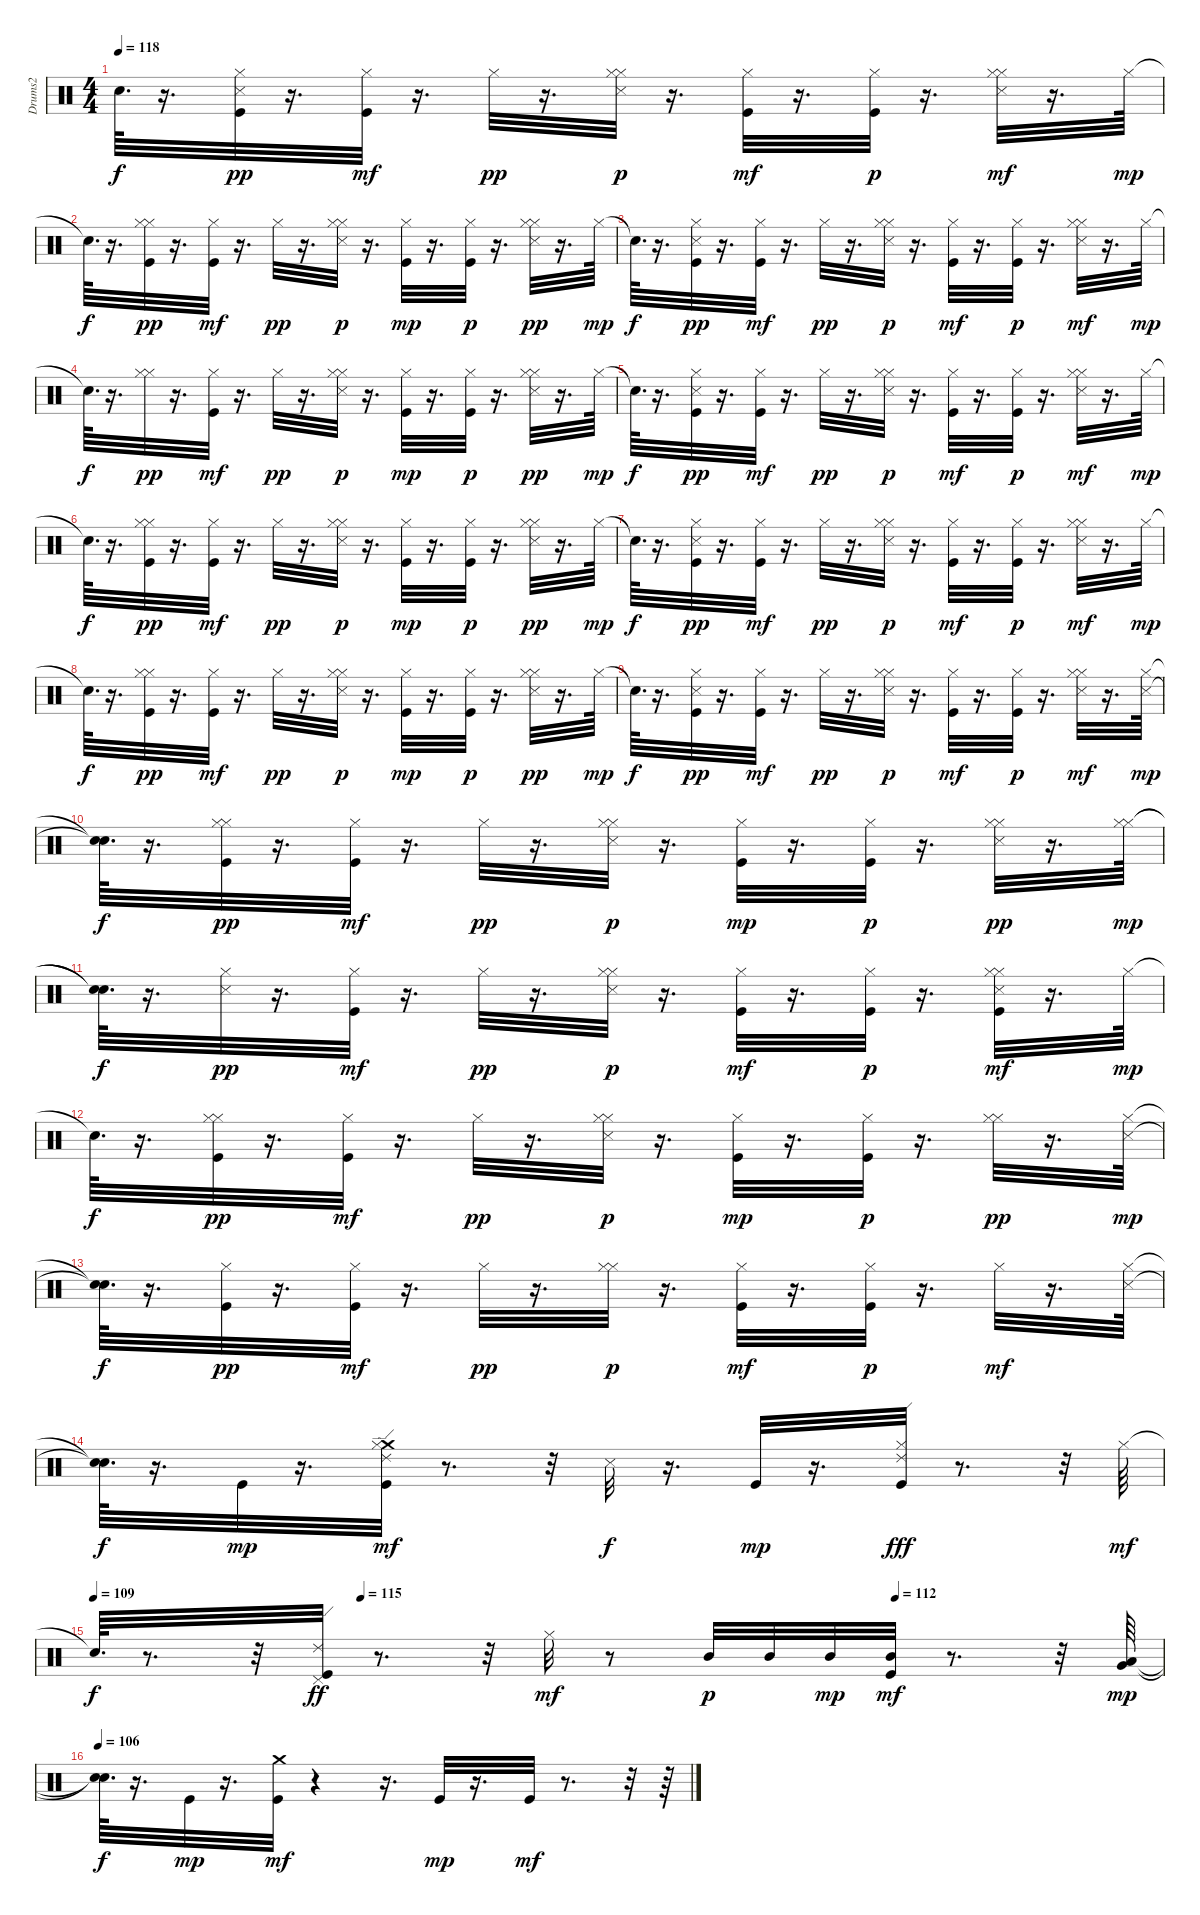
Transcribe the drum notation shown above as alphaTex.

\track ("Drums2" "Drums2") {instrument percussion}
\staff {score}
\articulation defaults
\ts (4 4)
\tempo 118
\clef neutral
\ks c "Snare (hit)"{t}.64{d dy f}
r.16{d} ("Kick (hit)" "Snare (side stick) 3" "Hi-Hat (closed)").32{dy pp} r.16{d} ("Kick (hit)" "Hi-Hat (closed)").32{dy mf} r.16{d} "Hi-Hat (closed)".32{dy pp} r.16{d} ("Hi-Hat (closed)" "Snare (side stick) 3" "Hi-Hat (closed)").32{dy p} r.16{d} ("Kick (hit)" "Hi-Hat (closed)").32{dy mf} r.16{d} ("Kick (hit)" "Hi-Hat (closed)").32{dy p} r.16{d} ("Hi-Hat (closed)" "Snare (side stick) 3" "Hi-Hat (closed)").32{dy mf} r.16{d} "Hi-Hat (closed)".64{dy mp} |
"Snare (hit)"{t}.64{d dy f} r.16{d} ("Hi-Hat (closed)" "Kick (hit)" "Hi-Hat (closed)").32{dy pp} r.16{d} ("Kick (hit)" "Hi-Hat (closed)").32{dy mf} r.16{d} "Hi-Hat (closed)".32{dy pp} r.16{d} ("Hi-Hat (closed)" "Snare (side stick) 3" "Hi-Hat (closed)").32{dy p} r.16{d} ("Kick (hit)" "Hi-Hat (closed)").32{dy mp} r.16{d} ("Kick (hit)" "Hi-Hat (closed)").32{dy p} r.16{d} ("Hi-Hat (closed)" "Snare (side stick) 3" "Hi-Hat (closed)").32{dy pp} r.16{d} "Hi-Hat (closed)".64{dy mp} |
"Snare (hit)"{t}.64{d dy f} r.16{d} ("Kick (hit)" "Snare (side stick) 3" "Hi-Hat (closed)").32{dy pp} r.16{d} ("Kick (hit)" "Hi-Hat (closed)").32{dy mf} r.16{d} "Hi-Hat (closed)".32{dy pp} r.16{d} ("Hi-Hat (closed)" "Snare (side stick) 3" "Hi-Hat (closed)").32{dy p} r.16{d} ("Kick (hit)" "Hi-Hat (closed)").32{dy mf} r.16{d} ("Kick (hit)" "Hi-Hat (closed)").32{dy p} r.16{d} ("Hi-Hat (closed)" "Snare (side stick) 3" "Hi-Hat (closed)").32{dy mf} r.16{d} "Hi-Hat (closed)".64{dy mp} |
"Snare (hit)"{t}.64{d dy f} r.16{d} ("Hi-Hat (closed)" "Hi-Hat (closed)").32{dy pp} r.16{d} ("Kick (hit)" "Hi-Hat (closed)").32{dy mf} r.16{d} "Hi-Hat (closed)".32{dy pp} r.16{d} ("Hi-Hat (closed)" "Snare (side stick) 3" "Hi-Hat (closed)").32{dy p} r.16{d} ("Kick (hit)" "Hi-Hat (closed)").32{dy mp} r.16{d} ("Kick (hit)" "Hi-Hat (closed)").32{dy p} r.16{d} ("Hi-Hat (closed)" "Snare (side stick) 3" "Hi-Hat (closed)").32{dy pp} r.16{d} "Hi-Hat (closed)".64{dy mp} |
"Snare (hit)"{t}.64{d dy f} r.16{d} ("Kick (hit)" "Snare (side stick) 3" "Hi-Hat (closed)").32{dy pp} r.16{d} ("Kick (hit)" "Hi-Hat (closed)").32{dy mf} r.16{d} "Hi-Hat (closed)".32{dy pp} r.16{d} ("Hi-Hat (closed)" "Snare (side stick) 3" "Hi-Hat (closed)").32{dy p} r.16{d} ("Kick (hit)" "Hi-Hat (closed)").32{dy mf} r.16{d} ("Kick (hit)" "Hi-Hat (closed)").32{dy p} r.16{d} ("Hi-Hat (closed)" "Snare (side stick) 3" "Hi-Hat (closed)").32{dy mf} r.16{d} "Hi-Hat (closed)".64{dy mp} |
"Snare (hit)"{t}.64{d dy f} r.16{d} ("Hi-Hat (closed)" "Kick (hit)" "Hi-Hat (closed)").32{dy pp} r.16{d} ("Kick (hit)" "Hi-Hat (closed)").32{dy mf} r.16{d} "Hi-Hat (closed)".32{dy pp} r.16{d} ("Hi-Hat (closed)" "Snare (side stick) 3" "Hi-Hat (closed)").32{dy p} r.16{d} ("Kick (hit)" "Hi-Hat (closed)").32{dy mp} r.16{d} ("Kick (hit)" "Hi-Hat (closed)").32{dy p} r.16{d} ("Hi-Hat (closed)" "Snare (side stick) 3" "Hi-Hat (closed)").32{dy pp} r.16{d} "Hi-Hat (closed)".64{dy mp} |
"Snare (hit)"{t}.64{d dy f} r.16{d} ("Kick (hit)" "Snare (side stick) 3" "Hi-Hat (closed)").32{dy pp} r.16{d} ("Kick (hit)" "Hi-Hat (closed)").32{dy mf} r.16{d} "Hi-Hat (closed)".32{dy pp} r.16{d} ("Hi-Hat (closed)" "Snare (side stick) 3" "Hi-Hat (closed)").32{dy p} r.16{d} ("Kick (hit)" "Hi-Hat (closed)").32{dy mf} r.16{d} ("Kick (hit)" "Hi-Hat (closed)").32{dy p} r.16{d} ("Hi-Hat (closed)" "Snare (side stick) 3" "Hi-Hat (closed)").32{dy mf} r.16{d} "Hi-Hat (closed)".64{dy mp} |
"Snare (hit)"{t}.64{d dy f} r.16{d} ("Hi-Hat (closed)" "Kick (hit)" "Hi-Hat (closed)").32{dy pp} r.16{d} ("Kick (hit)" "Hi-Hat (closed)").32{dy mf} r.16{d} "Hi-Hat (closed)".32{dy pp} r.16{d} ("Hi-Hat (closed)" "Snare (side stick) 3" "Hi-Hat (closed)").32{dy p} r.16{d} ("Kick (hit)" "Hi-Hat (closed)").32{dy mp} r.16{d} ("Kick (hit)" "Hi-Hat (closed)").32{dy p} r.16{d} ("Hi-Hat (closed)" "Snare (side stick) 3" "Hi-Hat (closed)").32{dy pp} r.16{d} "Hi-Hat (closed)".64{dy mp} |
"Snare (hit)"{t}.64{d dy f} r.16{d} ("Kick (hit)" "Snare (side stick) 3" "Hi-Hat (closed)").32{dy pp} r.16{d} ("Kick (hit)" "Hi-Hat (closed)").32{dy mf} r.16{d} "Hi-Hat (closed)".32{dy pp} r.16{d} ("Hi-Hat (closed)" "Snare (side stick) 3" "Hi-Hat (closed)").32{dy p} r.16{d} ("Kick (hit)" "Hi-Hat (closed)").32{dy mf} r.16{d} ("Kick (hit)" "Hi-Hat (closed)").32{dy p} r.16{d} ("Hi-Hat (closed)" "Snare (side stick) 3" "Hi-Hat (closed)").32{dy mf} r.16{d} ("Snare (side stick) 3" "Hi-Hat (closed)").64{dy mp} |
("Snare (hit)"{t} "Snare (hit)"{t}).64{d dy f} r.16{d} ("Hi-Hat (closed)" "Kick (hit)" "Hi-Hat (closed)").32{dy pp} r.16{d} ("Kick (hit)" "Hi-Hat (closed)").32{dy mf} r.16{d} "Hi-Hat (closed)".32{dy pp} r.16{d} ("Hi-Hat (closed)" "Snare (side stick) 3" "Hi-Hat (closed)").32{dy p} r.16{d} ("Kick (hit)" "Hi-Hat (closed)").32{dy mp} r.16{d} ("Kick (hit)" "Hi-Hat (closed)").32{dy p} r.16{d} ("Hi-Hat (closed)" "Snare (side stick) 3" "Hi-Hat (closed)").32{dy pp} r.16{d} ("Hi-Hat (closed)" "Hi-Hat (closed)").64{dy mp} |
("Snare (hit)"{t} "Snare (hit)"{t}).64{d dy f} r.16{d} ("Snare (side stick) 3" "Hi-Hat (closed)").32{dy pp} r.16{d} ("Kick (hit)" "Hi-Hat (closed)").32{dy mf} r.16{d} "Hi-Hat (closed)".32{dy pp} r.16{d} ("Hi-Hat (closed)" "Snare (side stick) 3" "Hi-Hat (closed)").32{dy p} r.16{d} ("Kick (hit)" "Hi-Hat (closed)").32{dy mf} r.16{d} ("Kick (hit)" "Hi-Hat (closed)").32{dy p} r.16{d} ("Hi-Hat (closed)" "Kick (hit)" "Snare (side stick) 3" "Hi-Hat (closed)").32{dy mf} r.16{d} "Hi-Hat (closed)".64{dy mp} |
"Snare (hit)"{t}.64{d dy f} r.16{d} ("Hi-Hat (closed)" "Kick (hit)" "Hi-Hat (closed)").32{dy pp} r.16{d} ("Kick (hit)" "Hi-Hat (closed)").32{dy mf} r.16{d} "Hi-Hat (closed)".32{dy pp} r.16{d} ("Hi-Hat (closed)" "Snare (side stick) 3" "Hi-Hat (closed)").32{dy p} r.16{d} ("Kick (hit)" "Hi-Hat (closed)").32{dy mp} r.16{d} ("Kick (hit)" "Hi-Hat (closed)").32{dy p} r.16{d} ("Hi-Hat (closed)" "Hi-Hat (closed)").32{dy pp} r.16{d} ("Snare (side stick) 3" "Hi-Hat (closed)").64{dy mp} |
("Snare (hit)"{t} "Snare (hit)"{t}).64{d dy f} r.16{d} ("Kick (hit)" "Hi-Hat (closed)").32{dy pp} r.16{d} ("Kick (hit)" "Hi-Hat (closed)").32{dy mf} r.16{d} "Hi-Hat (closed)".32{dy pp} r.16{d} ("Hi-Hat (closed)" "Hi-Hat (closed)").32{dy p} r.16{d} ("Kick (hit)" "Hi-Hat (closed)").32{dy mf} r.16{d} ("Kick (hit)" "Hi-Hat (closed)").32{dy p} r.16{d} "Hi-Hat (closed)".32{dy mf} r.16{d} ("Hi-Hat (closed)" "Snare (side stick) 3").64 |
("Snare (hit)"{t} "Snare (hit)"{t}).64{d dy f} r.16{d} "Kick (hit)".32{dy mp} r.16{d} ("Ride (edge) 2" "Crash medium (hit)" "Hi-Hat (closed)" "Kick (hit)").32{dy mf} r.8{d} r.32 "Snare (side stick) 3".32{dy f} r.16{d} "Kick (hit)".32{dy mp} r.16{d} ("Kick (hit)" "Hi-Hat (closed)" "Ride (edge) 2").32{dy fff} r.8{d} r.32 "Hi-Hat (closed)".64{dy mf} |
\tempo 109
\tempo (115 0.25)
\tempo (112 0.75)
"Snare (hit)"{t}.64{d dy f} r.8{d} r.32 ("Kick (hit)" "Pedal Hi-Hat (hit)" "Ride (edge) 2").32{dy ff} r.8{d} r.32 "Hi-Hat (closed)".32{dy mf} r.8 "Mid Tom (hit)".32{dy p} "Mid Tom (hit)".32 "Mid Tom (hit)".32{dy mp} ("Kick (hit)" "Mid Tom (hit)").32{dy mf} r.8{d} r.32 ("Very Low Tom (hit)" "Low Floor Tom (hit)").64{dy mp} |
\tempo 106
("Snare (hit)"{t} "Snare (hit)"{t}).64{d dy f} r.16{d} "Kick (hit)".32{dy mp} r.16{d} ("Crash medium (hit)" "Kick (hit)").32{dy mf} r.4 r.16{d} "Kick (hit)".32{dy mp} r.16{d} "Kick (hit)".32{dy mf} r.8{d} r.32 r.64
